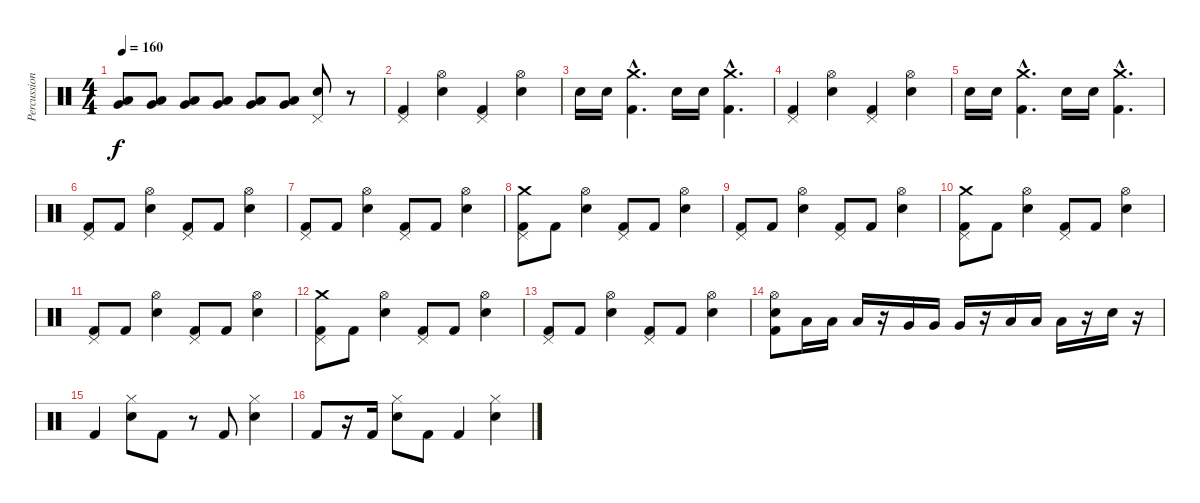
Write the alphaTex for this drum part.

\track ("Percussion" "Percussion") {instrument percussion}
\staff {score}
\articulation defaults
\ts (4 4)
\tempo 160
\clef neutral
\ks c
("Very Low Tom (hit)" "Low Floor Tom (hit)").8{dy f} ("Very Low Tom (hit)" "Low Floor Tom (hit)").8 ("Very Low Tom (hit)" "Low Floor Tom (hit)").8 ("Very Low Tom (hit)" "Low Floor Tom (hit)").8 ("Very Low Tom (hit)" "Low Floor Tom (hit)").8 ("Very Low Tom (hit)" "Low Floor Tom (hit)").8 ("Pedal Hi-Hat (hit)" "Snare (hit) 2").8 r.8 |
("Pedal Hi-Hat (hit)" "Kick (hit) 2").4 ("Hi-Hat (open)" "Snare (hit) 2").4 ("Pedal Hi-Hat (hit)" "Kick (hit) 2").4 ("Hi-Hat (open)" "Snare (hit) 2").4 |
"Snare (hit) 2".16 "Snare (hit) 2".16 ("Crash medium (hit)"{hac} "Kick (hit) 2"{hac}).4{d} "Snare (hit) 2".16 "Snare (hit) 2".16 ("Crash medium (hit)"{hac} "Kick (hit) 2"{hac}).4{d} |
("Pedal Hi-Hat (hit)" "Kick (hit) 2").4 ("Hi-Hat (open)" "Snare (hit) 2").4 ("Pedal Hi-Hat (hit)" "Kick (hit) 2").4 ("Hi-Hat (open)" "Snare (hit) 2").4 |
"Snare (hit) 2".16 "Snare (hit) 2".16 ("Crash medium (hit)"{hac} "Kick (hit) 2"{hac}).4{d} "Snare (hit) 2".16 "Snare (hit) 2".16 ("Crash medium (hit)"{hac} "Kick (hit) 2"{hac}).4{d} |
("Pedal Hi-Hat (hit)" "Kick (hit) 2").8 "Kick (hit) 2".8 ("Hi-Hat (open)" "Snare (hit) 2").4 ("Pedal Hi-Hat (hit)" "Kick (hit) 2").8 "Kick (hit) 2".8 ("Hi-Hat (open)" "Snare (hit) 2").4 |
("Pedal Hi-Hat (hit)" "Kick (hit) 2").8 "Kick (hit) 2".8 ("Hi-Hat (open)" "Snare (hit) 2").4 ("Pedal Hi-Hat (hit)" "Kick (hit) 2").8 "Kick (hit) 2".8 ("Hi-Hat (open)" "Snare (hit) 2").4 |
("Crash medium (hit)" "Pedal Hi-Hat (hit)" "Kick (hit) 2").8 "Kick (hit) 2".8 ("Hi-Hat (open)" "Snare (hit) 2").4 ("Pedal Hi-Hat (hit)" "Kick (hit) 2").8 "Kick (hit) 2".8 ("Hi-Hat (open)" "Snare (hit) 2").4 |
("Pedal Hi-Hat (hit)" "Kick (hit) 2").8 "Kick (hit) 2".8 ("Hi-Hat (open)" "Snare (hit) 2").4 ("Pedal Hi-Hat (hit)" "Kick (hit) 2").8 "Kick (hit) 2".8 ("Hi-Hat (open)" "Snare (hit) 2").4 |
("Crash medium (hit)" "Pedal Hi-Hat (hit)" "Kick (hit) 2").8 "Kick (hit) 2".8 ("Hi-Hat (open)" "Snare (hit) 2").4 ("Pedal Hi-Hat (hit)" "Kick (hit) 2").8 "Kick (hit) 2".8 ("Hi-Hat (open)" "Snare (hit) 2").4 |
("Pedal Hi-Hat (hit)" "Kick (hit) 2").8 "Kick (hit) 2".8 ("Hi-Hat (open)" "Snare (hit) 2").4 ("Pedal Hi-Hat (hit)" "Kick (hit) 2").8 "Kick (hit) 2".8 ("Hi-Hat (open)" "Snare (hit) 2").4 |
("Crash medium (hit)" "Pedal Hi-Hat (hit)" "Kick (hit) 2").8 "Kick (hit) 2".8 ("Hi-Hat (open)" "Snare (hit) 2").4 ("Pedal Hi-Hat (hit)" "Kick (hit) 2").8 "Kick (hit) 2".8 ("Hi-Hat (open)" "Snare (hit) 2").4 |
("Pedal Hi-Hat (hit)" "Kick (hit) 2").8 "Kick (hit) 2".8 ("Hi-Hat (open)" "Snare (hit) 2").4 ("Pedal Hi-Hat (hit)" "Kick (hit) 2").8 "Kick (hit) 2".8 ("Hi-Hat (open)" "Snare (hit) 2").4 |
("Hi-Hat (open)" "Kick (hit) 2" "Snare (hit) 2").8 "Low Tom (hit)".16 "Low Tom (hit)".16 "Low Tom (hit)".16 r.16 "Very Low Tom (hit)".16 "Very Low Tom (hit)".16 "Very Low Tom (hit)".16 r.16 "Low Floor Tom (hit)".16 "Low Floor Tom (hit)".16 "Low Floor Tom (hit)".16 r.16 "Snare (hit) 2".16 r.16 |
"Kick (hit) 2".4 ("Hi-Hat (closed)" "Snare (hit) 2").8 "Kick (hit) 2".8 r.8 "Kick (hit) 2".8 ("Hi-Hat (closed)" "Snare (hit) 2").4 |
"Kick (hit) 2".8 r.16 "Kick (hit) 2".16 ("Hi-Hat (closed)" "Snare (hit) 2").8 "Kick (hit) 2".8 "Kick (hit) 2".4 ("Hi-Hat (closed)" "Snare (hit) 2").4
